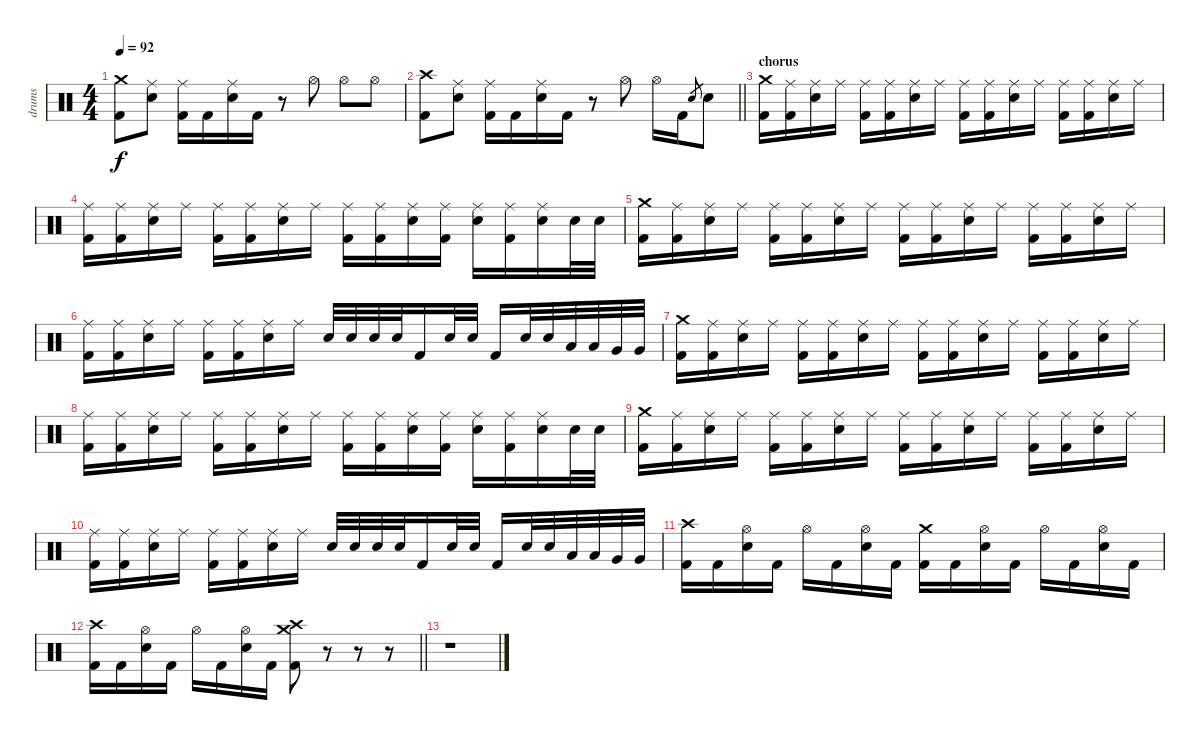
\track ("drums" "drums") {instrument percussion}
\staff {score}
\articulation defaults
\ts (4 4)
\tempo 92
\clef neutral
\ks c
("Crash medium (hit)" "Kick (hit) 2").8{dy f} ("Ride (middle)" "Snare (hit) 2").8 ("Ride (middle)" "Kick (hit) 2").16 "Kick (hit) 2".16 ("Ride (middle)" "Snare (hit) 2").16 "Kick (hit) 2".16 r.8 "Hi-Hat (open)".8 "Hi-Hat (open)".8 "Hi-Hat (open)".8 |
\barLineRight lightlight
("Crash high (hit)" "Kick (hit) 2").8 ("Ride (middle)" "Snare (hit) 2").8 ("Ride (middle)" "Kick (hit) 2").16 "Kick (hit) 2".16 ("Ride (middle)" "Snare (hit) 2").16 "Kick (hit) 2".16 r.8 "Hi-Hat (open)".8 "Hi-Hat (open)".16 "Kick (hit) 2".16 "Snare (hit) 2".8{gr} "Snare (hit) 2".8 |
\section ("" "chorus")
("Crash medium (hit)" "Kick (hit) 2").16 ("Ride (middle)" "Kick (hit) 2").16 ("Ride (middle)" "Snare (hit) 2").16 "Ride (middle)".16 ("Ride (middle)" "Kick (hit) 2").16 ("Ride (middle)" "Kick (hit) 2").16 ("Ride (middle)" "Snare (hit) 2").16 "Ride (middle)".16 ("Ride (middle)" "Kick (hit) 2").16 ("Ride (middle)" "Kick (hit) 2").16 ("Ride (middle)" "Snare (hit) 2").16 "Ride (middle)".16 ("Ride (middle)" "Kick (hit) 2").16 ("Ride (middle)" "Kick (hit) 2").16 ("Ride (middle)" "Snare (hit) 2").16 "Ride (middle)".16 |
("Ride (middle)" "Kick (hit) 2").16 ("Ride (middle)" "Kick (hit) 2").16 ("Ride (middle)" "Snare (hit) 2").16 "Ride (middle)".16 ("Ride (middle)" "Kick (hit) 2").16 ("Ride (middle)" "Kick (hit) 2").16 ("Ride (middle)" "Snare (hit) 2").16 "Ride (middle)".16 ("Ride (middle)" "Kick (hit) 2").16 ("Ride (middle)" "Kick (hit) 2").16 ("Ride (middle)" "Snare (hit) 2").16 ("Ride (middle)" "Kick (hit) 2").16 ("Ride (middle)" "Snare (hit) 2").16 ("Ride (middle)" "Kick (hit) 2").16 ("Ride (middle)" "Snare (hit) 2").16 "Snare (hit) 2".32 "Snare (hit) 2".32 |
("Crash medium (hit)" "Kick (hit) 2").16 ("Ride (middle)" "Kick (hit) 2").16 ("Ride (middle)" "Snare (hit) 2").16 "Ride (middle)".16 ("Ride (middle)" "Kick (hit) 2").16 ("Ride (middle)" "Kick (hit) 2").16 ("Ride (middle)" "Snare (hit) 2").16 "Ride (middle)".16 ("Ride (middle)" "Kick (hit) 2").16 ("Ride (middle)" "Kick (hit) 2").16 ("Ride (middle)" "Snare (hit) 2").16 "Ride (middle)".16 ("Ride (middle)" "Kick (hit) 2").16 ("Ride (middle)" "Kick (hit) 2").16 ("Ride (middle)" "Snare (hit) 2").16 "Ride (middle)".16 |
("Ride (middle)" "Kick (hit) 2").16 ("Ride (middle)" "Kick (hit) 2").16 ("Ride (middle)" "Snare (hit) 2").16 "Ride (middle)".16 ("Ride (middle)" "Kick (hit) 2").16 ("Ride (middle)" "Kick (hit) 2").16 ("Ride (middle)" "Snare (hit) 2").16 "Ride (middle)".16 "Snare (hit) 2".32 "Snare (hit) 2".32 "Snare (hit) 2".32 "Snare (hit) 2".32 "Kick (hit) 2".16 "Snare (hit) 2".32 "Snare (hit) 2".32 "Kick (hit) 2".16 "Snare (hit) 2".32 "Snare (hit) 2".32 "Low Tom (hit)".32 "Low Tom (hit)".32 "Very Low Tom (hit)".32 "Very Low Tom (hit)".32 |
("Crash medium (hit)" "Kick (hit) 2").16 ("Ride (middle)" "Kick (hit) 2").16 ("Ride (middle)" "Snare (hit) 2").16 "Ride (middle)".16 ("Ride (middle)" "Kick (hit) 2").16 ("Ride (middle)" "Kick (hit) 2").16 ("Ride (middle)" "Snare (hit) 2").16 "Ride (middle)".16 ("Ride (middle)" "Kick (hit) 2").16 ("Ride (middle)" "Kick (hit) 2").16 ("Ride (middle)" "Snare (hit) 2").16 "Ride (middle)".16 ("Ride (middle)" "Kick (hit) 2").16 ("Ride (middle)" "Kick (hit) 2").16 ("Ride (middle)" "Snare (hit) 2").16 "Ride (middle)".16 |
("Ride (middle)" "Kick (hit) 2").16 ("Ride (middle)" "Kick (hit) 2").16 ("Ride (middle)" "Snare (hit) 2").16 "Ride (middle)".16 ("Ride (middle)" "Kick (hit) 2").16 ("Ride (middle)" "Kick (hit) 2").16 ("Ride (middle)" "Snare (hit) 2").16 "Ride (middle)".16 ("Ride (middle)" "Kick (hit) 2").16 ("Ride (middle)" "Kick (hit) 2").16 ("Ride (middle)" "Snare (hit) 2").16 ("Ride (middle)" "Kick (hit) 2").16 ("Ride (middle)" "Snare (hit) 2").16 ("Ride (middle)" "Kick (hit) 2").16 ("Ride (middle)" "Snare (hit) 2").16 "Snare (hit) 2".32 "Snare (hit) 2".32 |
("Crash medium (hit)" "Kick (hit) 2").16 ("Ride (middle)" "Kick (hit) 2").16 ("Ride (middle)" "Snare (hit) 2").16 "Ride (middle)".16 ("Ride (middle)" "Kick (hit) 2").16 ("Ride (middle)" "Kick (hit) 2").16 ("Ride (middle)" "Snare (hit) 2").16 "Ride (middle)".16 ("Ride (middle)" "Kick (hit) 2").16 ("Ride (middle)" "Kick (hit) 2").16 ("Ride (middle)" "Snare (hit) 2").16 "Ride (middle)".16 ("Ride (middle)" "Kick (hit) 2").16 ("Ride (middle)" "Kick (hit) 2").16 ("Ride (middle)" "Snare (hit) 2").16 "Ride (middle)".16 |
("Ride (middle)" "Kick (hit) 2").16 ("Ride (middle)" "Kick (hit) 2").16 ("Ride (middle)" "Snare (hit) 2").16 "Ride (middle)".16 ("Ride (middle)" "Kick (hit) 2").16 ("Ride (middle)" "Kick (hit) 2").16 ("Ride (middle)" "Snare (hit) 2").16 "Ride (middle)".16 "Snare (hit) 2".32 "Snare (hit) 2".32 "Snare (hit) 2".32 "Snare (hit) 2".32 "Kick (hit) 2".16 "Snare (hit) 2".32 "Snare (hit) 2".32 "Kick (hit) 2".16 "Snare (hit) 2".32 "Snare (hit) 2".32 "Low Tom (hit)".32 "Low Tom (hit)".32 "Very Low Tom (hit)".32 "Very Low Tom (hit)".32 |
("Crash high (hit)" "Kick (hit) 2").16 "Kick (hit) 2".16 ("Hi-Hat (open)" "Snare (hit) 2").16 "Kick (hit) 2".16 "Hi-Hat (open)".16 "Kick (hit) 2".16 ("Hi-Hat (open)" "Snare (hit) 2").16 "Kick (hit) 2".16 ("Crash medium (hit)" "Kick (hit) 2").16 "Kick (hit) 2".16 ("Hi-Hat (open)" "Snare (hit) 2").16 "Kick (hit) 2".16 "Hi-Hat (open)".16 "Kick (hit) 2".16 ("Hi-Hat (open)" "Snare (hit) 2").16 "Kick (hit) 2".16 |
\barLineRight lightlight
("Crash high (hit)" "Kick (hit) 2").16 "Kick (hit) 2".16 ("Hi-Hat (open)" "Snare (hit) 2").16 "Kick (hit) 2".16 "Hi-Hat (open)".16 "Kick (hit) 2".16 ("Hi-Hat (open)" "Snare (hit) 2").16 "Kick (hit) 2".16 ("Crash medium (hit)" "Crash high (hit)" "Kick (hit) 2").8 r.8 r.8 r.8 |
r.1
